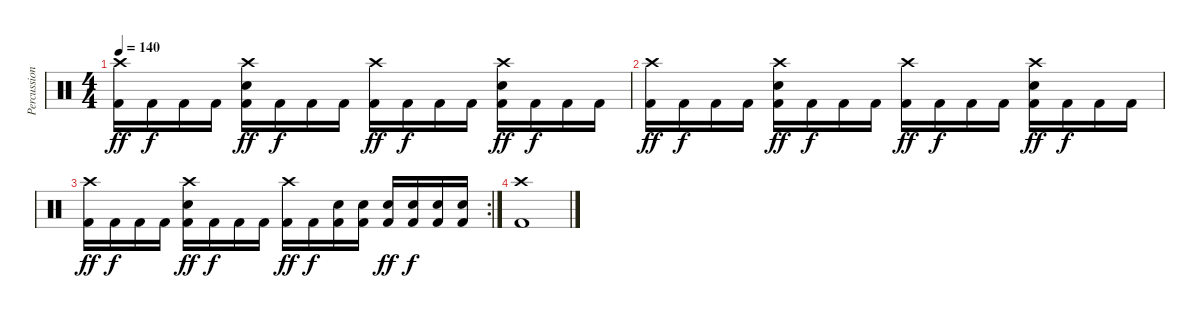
\track ("Percussion" "Percussion") {instrument percussion}
\staff {score}
\articulation defaults
\ts (4 4)
\tempo 140
\clef neutral
\ks c
("Crash high (hit)" "Kick (hit) 2").16{dy ff} "Kick (hit) 2".16{dy f} "Kick (hit) 2".16 "Kick (hit) 2".16 ("Crash high (hit)" "Snare (hit) 2" "Kick (hit) 2").16{dy ff} "Kick (hit) 2".16{dy f} "Kick (hit) 2".16 "Kick (hit) 2".16 ("Crash high (hit)" "Kick (hit) 2").16{dy ff} "Kick (hit) 2".16{dy f} "Kick (hit) 2".16 "Kick (hit) 2".16 ("Crash high (hit)" "Snare (hit) 2" "Kick (hit) 2").16{dy ff} "Kick (hit) 2".16{dy f} "Kick (hit) 2".16 "Kick (hit) 2".16 |
("Crash high (hit)" "Kick (hit) 2").16{dy ff} "Kick (hit) 2".16{dy f} "Kick (hit) 2".16 "Kick (hit) 2".16 ("Crash high (hit)" "Snare (hit) 2" "Kick (hit) 2").16{dy ff} "Kick (hit) 2".16{dy f} "Kick (hit) 2".16 "Kick (hit) 2".16 ("Crash high (hit)" "Kick (hit) 2").16{dy ff} "Kick (hit) 2".16{dy f} "Kick (hit) 2".16 "Kick (hit) 2".16 ("Crash high (hit)" "Snare (hit) 2" "Kick (hit) 2").16{dy ff} "Kick (hit) 2".16{dy f} "Kick (hit) 2".16 "Kick (hit) 2".16 |
\rc 2
("Crash high (hit)" "Kick (hit) 2").16{dy ff} "Kick (hit) 2".16{dy f} "Kick (hit) 2".16 "Kick (hit) 2".16 ("Crash high (hit)" "Snare (hit) 2" "Kick (hit) 2").16{dy ff} "Kick (hit) 2".16{dy f} "Kick (hit) 2".16 "Kick (hit) 2".16 ("Crash high (hit)" "Kick (hit) 2").16{dy ff} "Kick (hit) 2".16{dy f} ("Snare (hit) 2" "Kick (hit) 2").16 ("Snare (hit) 2" "Kick (hit) 2").16 ("Snare (hit) 2" "Kick (hit) 2").16{dy ff} ("Snare (hit) 2" "Kick (hit) 2").16{dy f} ("Snare (hit) 2" "Kick (hit) 2").16 ("Snare (hit) 2" "Kick (hit) 2").16 |
("Crash high (hit)" "Kick (hit) 2").1
